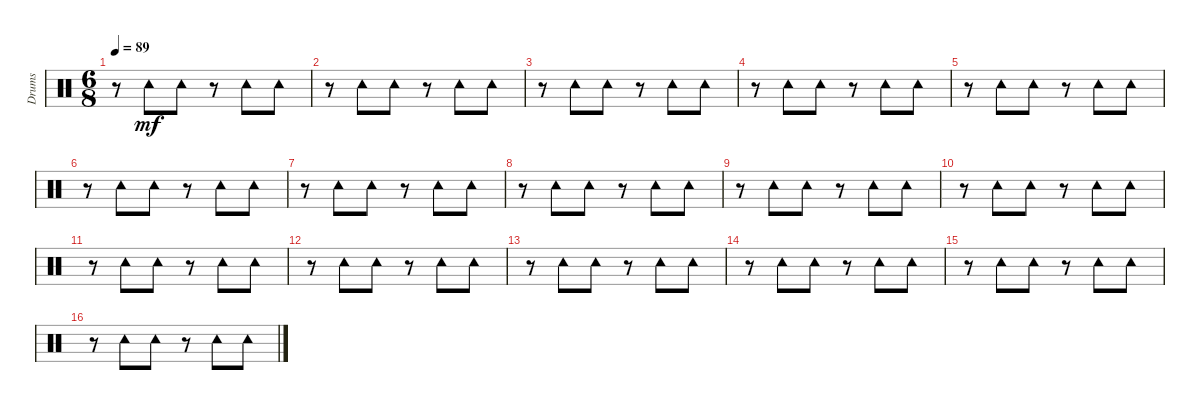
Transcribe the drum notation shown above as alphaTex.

\track ("Drums" "Drums") {instrument percussion}
\staff {score}
\articulation defaults
\ts (6 8)
\tempo 89
\clef neutral
\ks c
r.8{dy mf} "Tambourine (hit)".8 "Tambourine (hit)".8 r.8 "Tambourine (hit)".8 "Tambourine (hit)".8 |
r.8 "Tambourine (hit)".8 "Tambourine (hit)".8 r.8 "Tambourine (hit)".8 "Tambourine (hit)".8 |
r.8 "Tambourine (hit)".8 "Tambourine (hit)".8 r.8 "Tambourine (hit)".8 "Tambourine (hit)".8 |
r.8 "Tambourine (hit)".8 "Tambourine (hit)".8 r.8 "Tambourine (hit)".8 "Tambourine (hit)".8 |
r.8 "Tambourine (hit)".8 "Tambourine (hit)".8 r.8 "Tambourine (hit)".8 "Tambourine (hit)".8 |
r.8 "Tambourine (hit)".8 "Tambourine (hit)".8 r.8 "Tambourine (hit)".8 "Tambourine (hit)".8 |
r.8 "Tambourine (hit)".8 "Tambourine (hit)".8 r.8 "Tambourine (hit)".8 "Tambourine (hit)".8 |
r.8 "Tambourine (hit)".8 "Tambourine (hit)".8 r.8 "Tambourine (hit)".8 "Tambourine (hit)".8 |
r.8 "Tambourine (hit)".8 "Tambourine (hit)".8 r.8 "Tambourine (hit)".8 "Tambourine (hit)".8 |
r.8 "Tambourine (hit)".8 "Tambourine (hit)".8 r.8 "Tambourine (hit)".8 "Tambourine (hit)".8 |
r.8 "Tambourine (hit)".8 "Tambourine (hit)".8 r.8 "Tambourine (hit)".8 "Tambourine (hit)".8 |
r.8 "Tambourine (hit)".8 "Tambourine (hit)".8 r.8 "Tambourine (hit)".8 "Tambourine (hit)".8 |
r.8 "Tambourine (hit)".8 "Tambourine (hit)".8 r.8 "Tambourine (hit)".8 "Tambourine (hit)".8 |
r.8 "Tambourine (hit)".8 "Tambourine (hit)".8 r.8 "Tambourine (hit)".8 "Tambourine (hit)".8 |
r.8 "Tambourine (hit)".8 "Tambourine (hit)".8 r.8 "Tambourine (hit)".8 "Tambourine (hit)".8 |
r.8 "Tambourine (hit)".8 "Tambourine (hit)".8 r.8 "Tambourine (hit)".8 "Tambourine (hit)".8
